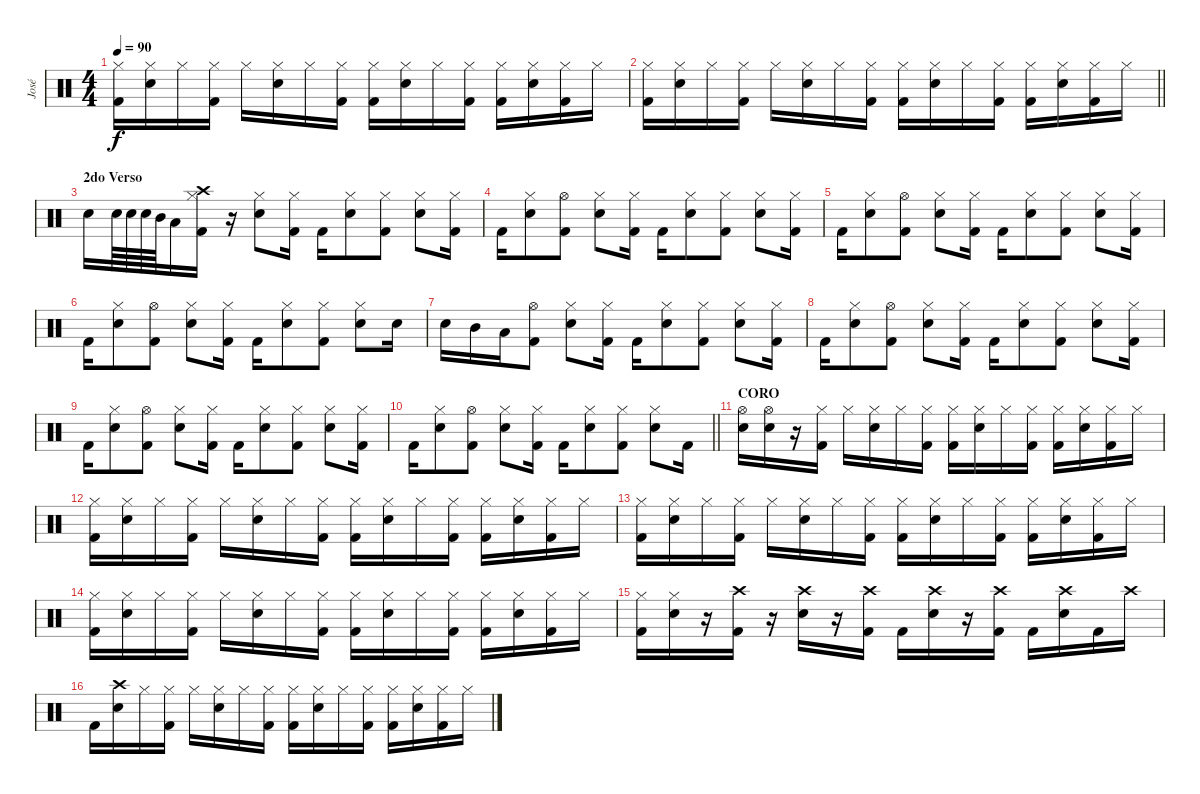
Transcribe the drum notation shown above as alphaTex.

\track ("José" "José") {instrument percussion}
\staff {score}
\articulation defaults
\ts (4 4)
\tempo 90
\clef neutral
\ks c
("Hi-Hat (closed)" "Kick (hit) 2").16{dy f} ("Hi-Hat (closed)" "Electric Snare (hit)").16 "Hi-Hat (closed)".16 ("Hi-Hat (closed)" "Kick (hit) 2").16 "Hi-Hat (closed)".16 ("Hi-Hat (closed)" "Electric Snare (hit)").16 "Hi-Hat (closed)".16 ("Hi-Hat (closed)" "Kick (hit) 2").16 ("Hi-Hat (closed)" "Kick (hit) 2").16 ("Hi-Hat (closed)" "Electric Snare (hit)").16 "Hi-Hat (closed)".16 ("Hi-Hat (closed)" "Kick (hit) 2").16 ("Hi-Hat (closed)" "Kick (hit) 2").16 ("Hi-Hat (closed)" "Electric Snare (hit)").16 ("Hi-Hat (closed)" "Kick (hit) 2").16 "Hi-Hat (closed)".16 |
\barLineRight lightlight
("Hi-Hat (closed)" "Kick (hit) 2").16 ("Hi-Hat (closed)" "Electric Snare (hit)").16 "Hi-Hat (closed)".16 ("Hi-Hat (closed)" "Kick (hit) 2").16 "Hi-Hat (closed)".16 ("Hi-Hat (closed)" "Electric Snare (hit)").16 "Hi-Hat (closed)".16 ("Hi-Hat (closed)" "Kick (hit) 2").16 ("Hi-Hat (closed)" "Kick (hit) 2").16 ("Hi-Hat (closed)" "Electric Snare (hit)").16 "Hi-Hat (closed)".16 ("Hi-Hat (closed)" "Kick (hit) 2").16 ("Hi-Hat (closed)" "Kick (hit) 2").16 ("Hi-Hat (closed)" "Electric Snare (hit)").16 ("Hi-Hat (closed)" "Kick (hit) 2").16 "Hi-Hat (closed)".16 |
\section ("" "2do Verso")
"Electric Snare (hit)".16 "Electric Snare (hit)".64 "Electric Snare (hit)".64 "Electric Snare (hit)".64 "Mid Tom (hit)".64 "Low Tom (hit)".16 ("Crash high (hit)" "Hi-Hat (closed)" "Kick (hit) 2").16 r.16 ("Hi-Hat (closed)" "Electric Snare (hit)").8 ("Hi-Hat (closed)" "Kick (hit) 2").16 "Kick (hit) 2".16 ("Hi-Hat (closed)" "Electric Snare (hit)").8 ("Hi-Hat (closed)" "Kick (hit) 2").8 ("Hi-Hat (closed)" "Electric Snare (hit)").8 ("Hi-Hat (closed)" "Kick (hit) 2").16 |
"Kick (hit) 2".16 ("Hi-Hat (closed)" "Electric Snare (hit)").8 ("Hi-Hat (open)" "Kick (hit) 2").8 ("Hi-Hat (closed)" "Electric Snare (hit)").8 ("Hi-Hat (closed)" "Kick (hit) 2").16 "Kick (hit) 2".16 ("Hi-Hat (closed)" "Electric Snare (hit)").8 ("Hi-Hat (closed)" "Kick (hit) 2").8 ("Hi-Hat (closed)" "Electric Snare (hit)").8 ("Hi-Hat (closed)" "Kick (hit) 2").16 |
"Kick (hit) 2".16 ("Hi-Hat (closed)" "Electric Snare (hit)").8 ("Hi-Hat (open)" "Kick (hit) 2").8 ("Hi-Hat (closed)" "Electric Snare (hit)").8 ("Hi-Hat (closed)" "Kick (hit) 2").16 "Kick (hit) 2".16 ("Hi-Hat (closed)" "Electric Snare (hit)").8 ("Hi-Hat (closed)" "Kick (hit) 2").8 ("Hi-Hat (closed)" "Electric Snare (hit)").8 ("Hi-Hat (closed)" "Kick (hit) 2").16 |
"Kick (hit) 2".16 ("Hi-Hat (closed)" "Electric Snare (hit)").8 ("Hi-Hat (open)" "Kick (hit) 2").8 ("Hi-Hat (closed)" "Electric Snare (hit)").8 ("Hi-Hat (closed)" "Kick (hit) 2").16 "Kick (hit) 2".16 ("Hi-Hat (closed)" "Electric Snare (hit)").8 ("Hi-Hat (closed)" "Kick (hit) 2").8 ("Hi-Hat (closed)" "Electric Snare (hit)").8 "Electric Snare (hit)".16 |
"Electric Snare (hit)".16 "Mid Tom (hit)".16 "Low Tom (hit)".16 ("Hi-Hat (open)" "Kick (hit) 2").8 ("Hi-Hat (closed)" "Electric Snare (hit)").8 ("Hi-Hat (closed)" "Kick (hit) 2").16 "Kick (hit) 2".16 ("Hi-Hat (closed)" "Electric Snare (hit)").8 ("Hi-Hat (closed)" "Kick (hit) 2").8 ("Hi-Hat (closed)" "Electric Snare (hit)").8 ("Hi-Hat (closed)" "Kick (hit) 2").16 |
"Kick (hit) 2".16 ("Hi-Hat (closed)" "Electric Snare (hit)").8 ("Hi-Hat (open)" "Kick (hit) 2").8 ("Hi-Hat (closed)" "Electric Snare (hit)").8 ("Hi-Hat (closed)" "Kick (hit) 2").16 "Kick (hit) 2".16 ("Hi-Hat (closed)" "Electric Snare (hit)").8 ("Hi-Hat (closed)" "Kick (hit) 2").8 ("Hi-Hat (closed)" "Electric Snare (hit)").8 ("Hi-Hat (closed)" "Kick (hit) 2").16 |
"Kick (hit) 2".16 ("Hi-Hat (closed)" "Electric Snare (hit)").8 ("Hi-Hat (open)" "Kick (hit) 2").8 ("Hi-Hat (closed)" "Electric Snare (hit)").8 ("Hi-Hat (closed)" "Kick (hit) 2").16 "Kick (hit) 2".16 ("Hi-Hat (closed)" "Electric Snare (hit)").8 ("Hi-Hat (closed)" "Kick (hit) 2").8 ("Hi-Hat (closed)" "Electric Snare (hit)").8 ("Hi-Hat (closed)" "Kick (hit) 2").16 |
\barLineRight lightlight "Kick (hit) 2".16
("Hi-Hat (closed)" "Electric Snare (hit)").8 ("Hi-Hat (open)" "Kick (hit) 2").8 ("Hi-Hat (closed)" "Electric Snare (hit)").8 ("Hi-Hat (closed)" "Kick (hit) 2").16 "Kick (hit) 2".16 ("Hi-Hat (closed)" "Electric Snare (hit)").8 ("Hi-Hat (closed)" "Kick (hit) 2").8 ("Hi-Hat (closed)" "Electric Snare (hit)").8 "Kick (hit) 2".16 |
\section ("" "CORO")
("Hi-Hat (open)" "Electric Snare (hit)").16 ("Hi-Hat (open)" "Electric Snare (hit)").16 r.16 ("Hi-Hat (closed)" "Kick (hit) 2").16 "Hi-Hat (closed)".16 ("Hi-Hat (closed)" "Electric Snare (hit)").16 "Hi-Hat (closed)".16 ("Hi-Hat (closed)" "Kick (hit) 2").16 ("Hi-Hat (closed)" "Kick (hit) 2").16 ("Hi-Hat (closed)" "Electric Snare (hit)").16 "Hi-Hat (closed)".16 ("Hi-Hat (closed)" "Kick (hit) 2").16 ("Hi-Hat (closed)" "Kick (hit) 2").16 ("Hi-Hat (closed)" "Electric Snare (hit)").16 ("Hi-Hat (closed)" "Kick (hit) 2").16 "Hi-Hat (closed)".16 |
("Hi-Hat (closed)" "Kick (hit) 2").16 ("Hi-Hat (closed)" "Electric Snare (hit)").16 "Hi-Hat (closed)".16 ("Hi-Hat (closed)" "Kick (hit) 2").16 "Hi-Hat (closed)".16 ("Hi-Hat (closed)" "Electric Snare (hit)").16 "Hi-Hat (closed)".16 ("Hi-Hat (closed)" "Kick (hit) 2").16 ("Hi-Hat (closed)" "Kick (hit) 2").16 ("Hi-Hat (closed)" "Electric Snare (hit)").16 "Hi-Hat (closed)".16 ("Hi-Hat (closed)" "Kick (hit) 2").16 ("Hi-Hat (closed)" "Kick (hit) 2").16 ("Hi-Hat (closed)" "Electric Snare (hit)").16 ("Hi-Hat (closed)" "Kick (hit) 2").16 "Hi-Hat (closed)".16 |
("Hi-Hat (closed)" "Kick (hit) 2").16 ("Hi-Hat (closed)" "Electric Snare (hit)").16 "Hi-Hat (closed)".16 ("Hi-Hat (closed)" "Kick (hit) 2").16 "Hi-Hat (closed)".16 ("Hi-Hat (closed)" "Electric Snare (hit)").16 "Hi-Hat (closed)".16 ("Hi-Hat (closed)" "Kick (hit) 2").16 ("Hi-Hat (closed)" "Kick (hit) 2").16 ("Hi-Hat (closed)" "Electric Snare (hit)").16 "Hi-Hat (closed)".16 ("Hi-Hat (closed)" "Kick (hit) 2").16 ("Hi-Hat (closed)" "Kick (hit) 2").16 ("Hi-Hat (closed)" "Electric Snare (hit)").16 ("Hi-Hat (closed)" "Kick (hit) 2").16 "Hi-Hat (closed)".16 |
("Hi-Hat (closed)" "Kick (hit) 2").16 ("Hi-Hat (closed)" "Electric Snare (hit)").16 "Hi-Hat (closed)".16 ("Hi-Hat (closed)" "Kick (hit) 2").16 "Hi-Hat (closed)".16 ("Hi-Hat (closed)" "Electric Snare (hit)").16 "Hi-Hat (closed)".16 ("Hi-Hat (closed)" "Kick (hit) 2").16 ("Hi-Hat (closed)" "Kick (hit) 2").16 ("Hi-Hat (closed)" "Electric Snare (hit)").16 "Hi-Hat (closed)".16 ("Hi-Hat (closed)" "Kick (hit) 2").16 ("Hi-Hat (closed)" "Kick (hit) 2").16 ("Hi-Hat (closed)" "Electric Snare (hit)").16 ("Hi-Hat (closed)" "Kick (hit) 2").16 "Hi-Hat (closed)".16 |
("Hi-Hat (closed)" "Kick (hit) 2").16 ("Hi-Hat (closed)" "Electric Snare (hit)").16 r.16 ("Crash high (hit)" "Kick (hit) 2").16 r.16 ("Crash high (hit)" "Electric Snare (hit)").16 r.16 ("Crash high (hit)" "Kick (hit) 2").16 "Kick (hit) 2".16 ("Crash high (hit)" "Electric Snare (hit)").16 r.16 ("Crash high (hit)" "Kick (hit) 2").16 "Kick (hit) 2".16 ("Crash high (hit)" "Electric Snare (hit)").16 "Kick (hit) 2".16 "Crash high (hit)".16 |
"Kick (hit) 2".16 ("Crash high (hit)" "Electric Snare (hit)").16 "Hi-Hat (closed)".16 ("Hi-Hat (closed)" "Kick (hit) 2").16 "Hi-Hat (closed)".16 ("Hi-Hat (closed)" "Electric Snare (hit)").16 "Hi-Hat (closed)".16 ("Hi-Hat (closed)" "Kick (hit) 2").16 ("Hi-Hat (closed)" "Kick (hit) 2").16 ("Hi-Hat (closed)" "Electric Snare (hit)").16 "Hi-Hat (closed)".16 ("Hi-Hat (closed)" "Kick (hit) 2").16 ("Hi-Hat (closed)" "Kick (hit) 2").16 ("Hi-Hat (closed)" "Electric Snare (hit)").16 ("Hi-Hat (closed)" "Kick (hit) 2").16 "Hi-Hat (closed)".16
